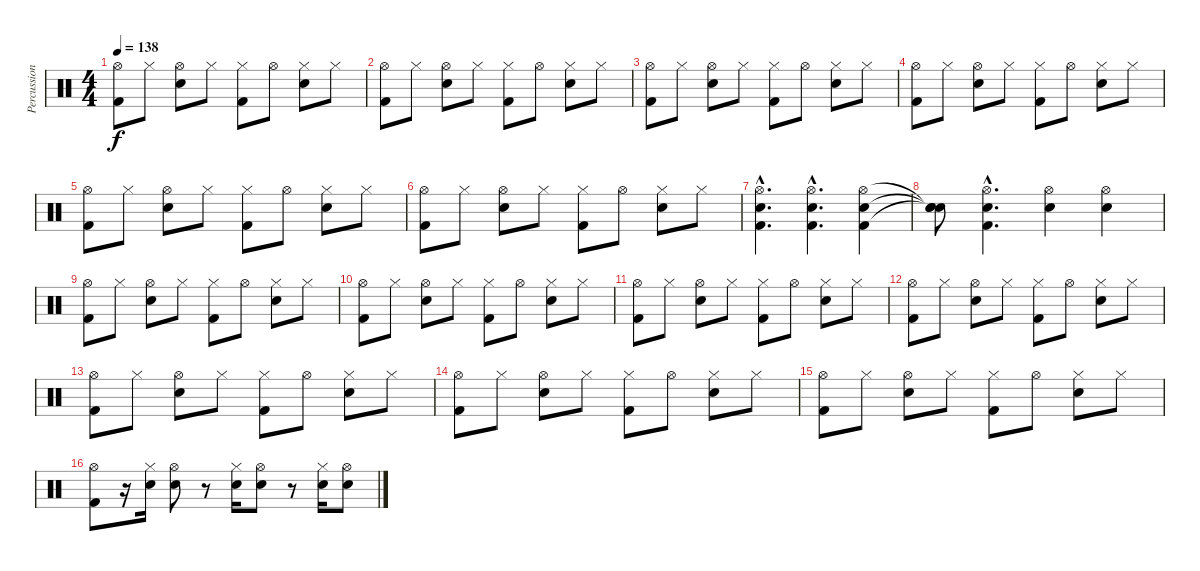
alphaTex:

\track ("Percussions" "Percussion") {instrument percussion}
\staff {score}
\articulation defaults
\ts (4 4)
\tempo 138
\clef neutral
\ks c
("Hi-Hat (open)" "Kick (hit) 2").8{dy f} "Hi-Hat (closed)".8 ("Hi-Hat (open)" "Snare (hit) 2").8 "Hi-Hat (closed)".8 ("Hi-Hat (closed)" "Kick (hit) 2").8 "Hi-Hat (open)".8 ("Hi-Hat (closed)" "Snare (hit) 2").8 "Hi-Hat (closed)".8 |
("Hi-Hat (open)" "Kick (hit) 2").8 "Hi-Hat (closed)".8 ("Hi-Hat (open)" "Snare (hit) 2").8 "Hi-Hat (closed)".8 ("Hi-Hat (closed)" "Kick (hit) 2").8 "Hi-Hat (open)".8 ("Hi-Hat (closed)" "Snare (hit) 2").8 "Hi-Hat (closed)".8 |
("Hi-Hat (open)" "Kick (hit) 2").8 "Hi-Hat (closed)".8 ("Hi-Hat (open)" "Snare (hit) 2").8 "Hi-Hat (closed)".8 ("Hi-Hat (closed)" "Kick (hit) 2").8 "Hi-Hat (open)".8 ("Hi-Hat (closed)" "Snare (hit) 2").8 "Hi-Hat (closed)".8 |
("Hi-Hat (open)" "Kick (hit) 2").8 "Hi-Hat (closed)".8 ("Hi-Hat (open)" "Snare (hit) 2").8 "Hi-Hat (closed)".8 ("Hi-Hat (closed)" "Kick (hit) 2").8 "Hi-Hat (open)".8 ("Hi-Hat (closed)" "Snare (hit) 2").8 "Hi-Hat (closed)".8 |
("Hi-Hat (open)" "Kick (hit) 2").8 "Hi-Hat (closed)".8 ("Hi-Hat (open)" "Snare (hit) 2").8 "Hi-Hat (closed)".8 ("Hi-Hat (closed)" "Kick (hit) 2").8 "Hi-Hat (open)".8 ("Hi-Hat (closed)" "Snare (hit) 2").8 "Hi-Hat (closed)".8 |
("Hi-Hat (open)" "Kick (hit) 2").8 "Hi-Hat (closed)".8 ("Hi-Hat (open)" "Snare (hit) 2").8 "Hi-Hat (closed)".8 ("Hi-Hat (closed)" "Kick (hit) 2").8 "Hi-Hat (open)".8 ("Hi-Hat (closed)" "Snare (hit) 2").8 "Hi-Hat (closed)".8 |
("Hi-Hat (open)"{hac} "Snare (hit) 2"{hac} "Kick (hit) 2"{hac}).4{d} ("Hi-Hat (open)"{hac} "Snare (hit) 2"{hac} "Kick (hit) 2"{hac}).4{d} ("Hi-Hat (open)" "Snare (hit) 2" "Kick (hit) 2").4 |
("Snare (hit)"{t} "Snare (hit)"{t} "Snare (hit)"{t}).8 ("Hi-Hat (open)"{hac} "Snare (hit) 2"{hac} "Kick (hit) 2"{hac}).4{d} ("Hi-Hat (open)" "Snare (hit) 2").4 ("Hi-Hat (open)" "Snare (hit) 2").4 |
("Hi-Hat (open)" "Kick (hit) 2").8 "Hi-Hat (closed)".8 ("Hi-Hat (open)" "Snare (hit) 2").8 "Hi-Hat (closed)".8 ("Hi-Hat (closed)" "Kick (hit) 2").8 "Hi-Hat (open)".8 ("Hi-Hat (closed)" "Snare (hit) 2").8 "Hi-Hat (closed)".8 |
("Hi-Hat (open)" "Kick (hit) 2").8 "Hi-Hat (closed)".8 ("Hi-Hat (open)" "Snare (hit) 2").8 "Hi-Hat (closed)".8 ("Hi-Hat (closed)" "Kick (hit) 2").8 "Hi-Hat (open)".8 ("Hi-Hat (closed)" "Snare (hit) 2").8 "Hi-Hat (closed)".8 |
("Hi-Hat (open)" "Kick (hit) 2").8 "Hi-Hat (closed)".8 ("Hi-Hat (open)" "Snare (hit) 2").8 "Hi-Hat (closed)".8 ("Hi-Hat (closed)" "Kick (hit) 2").8 "Hi-Hat (open)".8 ("Hi-Hat (closed)" "Snare (hit) 2").8 "Hi-Hat (closed)".8 |
("Hi-Hat (open)" "Kick (hit) 2").8 "Hi-Hat (closed)".8 ("Hi-Hat (open)" "Snare (hit) 2").8 "Hi-Hat (closed)".8 ("Hi-Hat (closed)" "Kick (hit) 2").8 "Hi-Hat (open)".8 ("Hi-Hat (closed)" "Snare (hit) 2").8 "Hi-Hat (closed)".8 |
("Hi-Hat (open)" "Kick (hit) 2").8 "Hi-Hat (closed)".8 ("Hi-Hat (open)" "Snare (hit) 2").8 "Hi-Hat (closed)".8 ("Hi-Hat (closed)" "Kick (hit) 2").8 "Hi-Hat (open)".8 ("Hi-Hat (closed)" "Snare (hit) 2").8 "Hi-Hat (closed)".8 |
("Hi-Hat (open)" "Kick (hit) 2").8 "Hi-Hat (closed)".8 ("Hi-Hat (open)" "Snare (hit) 2").8 "Hi-Hat (closed)".8 ("Hi-Hat (closed)" "Kick (hit) 2").8 "Hi-Hat (open)".8 ("Hi-Hat (closed)" "Snare (hit) 2").8 "Hi-Hat (closed)".8 |
("Hi-Hat (open)" "Kick (hit) 2").8 "Hi-Hat (closed)".8 ("Hi-Hat (open)" "Snare (hit) 2").8 "Hi-Hat (closed)".8 ("Hi-Hat (closed)" "Kick (hit) 2").8 "Hi-Hat (open)".8 ("Hi-Hat (closed)" "Snare (hit) 2").8 "Hi-Hat (closed)".8 |
("Hi-Hat (open)" "Kick (hit) 2").8 r.16 ("Hi-Hat (closed)" "Snare (hit) 2").16 ("Hi-Hat (open)" "Snare (hit) 2").8 r.8 ("Hi-Hat (closed)" "Snare (hit) 2").16 ("Hi-Hat (open)" "Snare (hit) 2").8 r.8 ("Hi-Hat (closed)" "Snare (hit) 2").16 ("Hi-Hat (open)" "Snare (hit) 2").8
